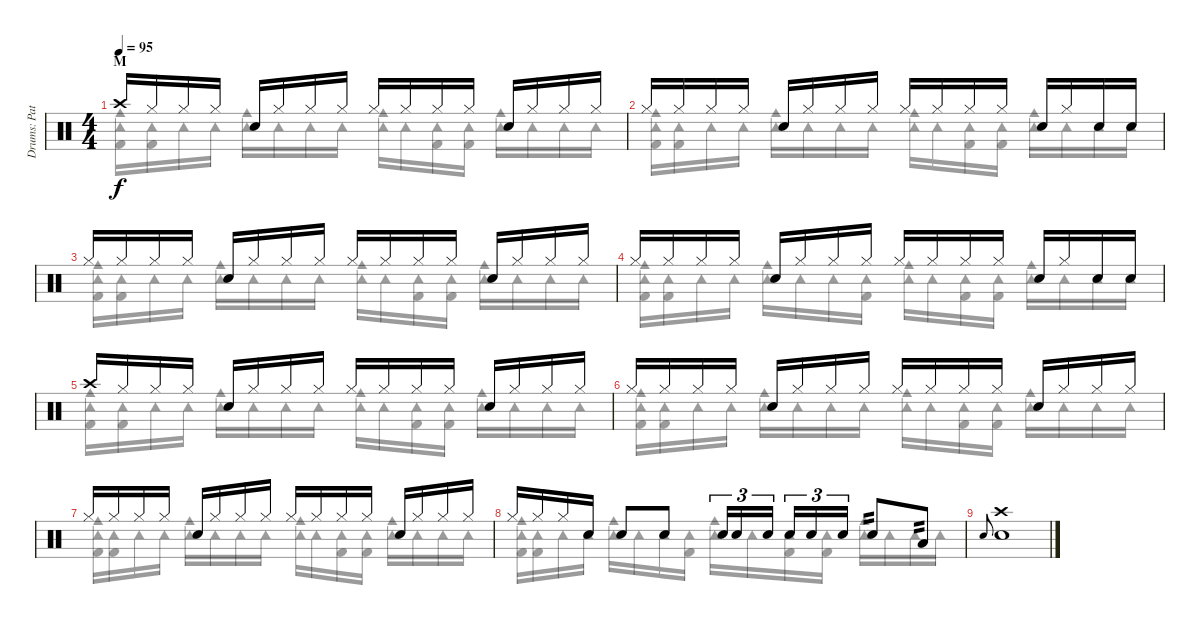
\track ("Drums: Pat" "Drums: Pat") {instrument percussion}
\staff {score}
\articulation defaults
\voice
\ts (4 4)
\section ("" "M")
\tempo 95
\clef neutral
\ks c "Crash high (hit)".16{dy f} "Hi-Hat (closed)".16 "Hi-Hat (closed)".16 "Hi-Hat (closed)".16 "Snare (hit) 2".16 "Hi-Hat (closed)".16 "Hi-Hat (closed)".16 "Hi-Hat (closed)".16 "Hi-Hat (closed)".16 "Hi-Hat (closed)".16 "Hi-Hat (closed)".16 "Hi-Hat (closed)".16 "Snare (hit) 2".16 "Hi-Hat (closed)".16 "Hi-Hat (closed)".16 "Hi-Hat (closed)".16
|
"Hi-Hat (closed)".16 "Hi-Hat (closed)".16 "Hi-Hat (closed)".16 "Hi-Hat (closed)".16 "Snare (hit) 2".16 "Hi-Hat (closed)".16 "Hi-Hat (closed)".16 "Hi-Hat (closed)".16 "Hi-Hat (closed)".16 "Hi-Hat (closed)".16 "Hi-Hat (closed)".16 "Hi-Hat (closed)".16 "Snare (hit) 2".16 "Hi-Hat (closed)".16 "Snare (hit) 2".16 "Snare (hit) 2".16 |
"Hi-Hat (closed)".16 "Hi-Hat (closed)".16 "Hi-Hat (closed)".16 "Hi-Hat (closed)".16 "Snare (hit) 2".16 "Hi-Hat (closed)".16 "Hi-Hat (closed)".16 "Hi-Hat (closed)".16 "Hi-Hat (closed)".16 "Hi-Hat (closed)".16 "Hi-Hat (closed)".16 "Hi-Hat (closed)".16 "Snare (hit) 2".16 "Hi-Hat (closed)".16 "Hi-Hat (closed)".16 "Hi-Hat (closed)".16 |
"Hi-Hat (closed)".16 "Hi-Hat (closed)".16 "Hi-Hat (closed)".16 "Hi-Hat (closed)".16 "Snare (hit) 2".16 "Hi-Hat (closed)".16 "Hi-Hat (closed)".16 "Hi-Hat (closed)".16 "Hi-Hat (closed)".16 "Hi-Hat (closed)".16 "Hi-Hat (closed)".16 "Hi-Hat (closed)".16 "Snare (hit) 2".16 "Hi-Hat (closed)".16 "Snare (hit) 2".16 "Snare (hit) 2".16 |
"Crash high (hit)".16 "Hi-Hat (closed)".16 "Hi-Hat (closed)".16 "Hi-Hat (closed)".16 "Snare (hit) 2".16 "Hi-Hat (closed)".16 "Hi-Hat (closed)".16 "Hi-Hat (closed)".16 "Hi-Hat (closed)".16 "Hi-Hat (closed)".16 "Hi-Hat (closed)".16 "Hi-Hat (closed)".16 "Snare (hit) 2".16 "Hi-Hat (closed)".16 "Hi-Hat (closed)".16 "Hi-Hat (closed)".16 |
"Hi-Hat (closed)".16 "Hi-Hat (closed)".16 "Hi-Hat (closed)".16 "Hi-Hat (closed)".16 "Snare (hit) 2".16 "Hi-Hat (closed)".16 "Hi-Hat (closed)".16 "Hi-Hat (closed)".16 "Hi-Hat (closed)".16 "Hi-Hat (closed)".16 "Hi-Hat (closed)".16 "Hi-Hat (closed)".16 "Snare (hit) 2".16 "Hi-Hat (closed)".16 "Hi-Hat (closed)".16 "Hi-Hat (closed)".16 |
"Hi-Hat (closed)".16 "Hi-Hat (closed)".16 "Hi-Hat (closed)".16 "Hi-Hat (closed)".16 "Snare (hit) 2".16 "Hi-Hat (closed)".16 "Hi-Hat (closed)".16 "Hi-Hat (closed)".16 "Hi-Hat (closed)".16 "Hi-Hat (closed)".16 "Hi-Hat (closed)".16 "Hi-Hat (closed)".16 "Snare (hit) 2".16 "Hi-Hat (closed)".16 "Hi-Hat (closed)".16 "Hi-Hat (closed)".16 |
"Hi-Hat (closed)".16 "Hi-Hat (closed)".16 "Hi-Hat (closed)".16 "Snare (hit) 2".16 "Snare (hit) 2".8 "Snare (hit) 2".8 "Snare (hit) 2".16{tu (3 2)} "Snare (hit) 2".16{tu (3 2)} "Snare (hit) 2".16{tu (3 2) beam splitsecondary} "Snare (hit) 2".16{tu (3 2)} "Snare (hit) 2".16{tu (3 2)} "Snare (hit) 2".16{tu (3 2)} "Snare (hit) 2".8{tp 2} "Low Tom (hit)".8{tp 2} |
"Electric Snare (hit)".8{gr onbeat} ("Crash high (hit)" "Snare (hit) 2").1 |
|
\voice
\clef neutral
\ottava regular
\simile none
\ks c
("Cowbell medium (hit)" "Kick (hit) 2" "Tambourine (hit)").16{dy f} ("Kick (hit) 2" "Tambourine (hit)").16 "Tambourine (hit)".16 "Tambourine (hit)".16 ("Cowbell medium (hit)" "Tambourine (hit)").16 "Tambourine (hit)".16 "Tambourine (hit)".16 "Tambourine (hit)".16 ("Cowbell medium (hit)" "Tambourine (hit)").16 "Tambourine (hit)".16 ("Kick (hit) 2" "Tambourine (hit)").16 ("Kick (hit) 2" "Tambourine (hit)").16 ("Cowbell medium (hit)" "Tambourine (hit)").16 "Tambourine (hit)".16 "Tambourine (hit)".16 "Tambourine (hit)".16 |
("Cowbell medium (hit)" "Kick (hit) 2" "Tambourine (hit)").16 ("Kick (hit) 2" "Tambourine (hit)").16 "Tambourine (hit)".16 "Tambourine (hit)".16 ("Cowbell medium (hit)" "Tambourine (hit)").16 "Tambourine (hit)".16 "Tambourine (hit)".16 "Tambourine (hit)".16 ("Cowbell medium (hit)" "Tambourine (hit)").16 "Tambourine (hit)".16 ("Kick (hit) 2" "Tambourine (hit)").16 ("Kick (hit) 2" "Tambourine (hit)").16 ("Cowbell medium (hit)" "Tambourine (hit)").16 "Tambourine (hit)".16 "Tambourine (hit)".16 "Tambourine (hit)".16 |
("Cowbell medium (hit)" "Kick (hit) 2" "Tambourine (hit)").16 ("Kick (hit) 2" "Tambourine (hit)").16 "Tambourine (hit)".16 "Tambourine (hit)".16 ("Cowbell medium (hit)" "Tambourine (hit)").16 "Tambourine (hit)".16 "Tambourine (hit)".16 "Tambourine (hit)".16 ("Cowbell medium (hit)" "Tambourine (hit)").16 "Tambourine (hit)".16 ("Kick (hit) 2" "Tambourine (hit)").16 ("Kick (hit) 2" "Tambourine (hit)").16 ("Cowbell medium (hit)" "Tambourine (hit)").16 "Tambourine (hit)".16 "Tambourine (hit)".16 "Tambourine (hit)".16 |
("Cowbell medium (hit)" "Kick (hit) 2" "Tambourine (hit)").16 ("Kick (hit) 2" "Tambourine (hit)").16 "Tambourine (hit)".16 "Tambourine (hit)".16 ("Cowbell medium (hit)" "Tambourine (hit)").16 "Tambourine (hit)".16 "Tambourine (hit)".16 ("Kick (hit) 2" "Tambourine (hit)").16 ("Cowbell medium (hit)" "Tambourine (hit)").16 "Tambourine (hit)".16 ("Kick (hit) 2" "Tambourine (hit)").16 ("Kick (hit) 2" "Tambourine (hit)").16 ("Cowbell medium (hit)" "Tambourine (hit)").16 "Tambourine (hit)".16 "Tambourine (hit)".16 "Tambourine (hit)".16 |
("Cowbell medium (hit)" "Kick (hit) 2" "Tambourine (hit)").16 ("Kick (hit) 2" "Tambourine (hit)").16 "Tambourine (hit)".16 "Tambourine (hit)".16 ("Cowbell medium (hit)" "Tambourine (hit)").16 "Tambourine (hit)".16 "Tambourine (hit)".16 "Tambourine (hit)".16 ("Cowbell medium (hit)" "Tambourine (hit)").16 "Tambourine (hit)".16 ("Kick (hit) 2" "Tambourine (hit)").16 ("Kick (hit) 2" "Tambourine (hit)").16 ("Cowbell medium (hit)" "Tambourine (hit)").16 "Tambourine (hit)".16 "Tambourine (hit)".16 "Tambourine (hit)".16 |
("Cowbell medium (hit)" "Kick (hit) 2" "Tambourine (hit)").16 ("Kick (hit) 2" "Tambourine (hit)").16 "Tambourine (hit)".16 "Tambourine (hit)".16 ("Cowbell medium (hit)" "Tambourine (hit)").16 "Tambourine (hit)".16 "Tambourine (hit)".16 "Tambourine (hit)".16 ("Cowbell medium (hit)" "Tambourine (hit)").16 "Tambourine (hit)".16 ("Kick (hit) 2" "Tambourine (hit)").16 ("Kick (hit) 2" "Tambourine (hit)").16 ("Cowbell medium (hit)" "Tambourine (hit)").16 "Tambourine (hit)".16 "Tambourine (hit)".16 "Tambourine (hit)".16 |
("Cowbell medium (hit)" "Kick (hit) 2" "Tambourine (hit)").16 ("Kick (hit) 2" "Tambourine (hit)").16 "Tambourine (hit)".16 "Tambourine (hit)".16 ("Cowbell medium (hit)" "Tambourine (hit)").16 "Tambourine (hit)".16 "Tambourine (hit)".16 "Tambourine (hit)".16 ("Cowbell medium (hit)" "Tambourine (hit)").16 "Tambourine (hit)".16 ("Kick (hit) 2" "Tambourine (hit)").16 ("Kick (hit) 2" "Tambourine (hit)").16 ("Cowbell medium (hit)" "Tambourine (hit)").16 "Tambourine (hit)".16 "Tambourine (hit)".16 "Tambourine (hit)".16 |
("Cowbell medium (hit)" "Kick (hit) 2" "Tambourine (hit)").16 ("Kick (hit) 2" "Tambourine (hit)").16 "Tambourine (hit)".16 "Tambourine (hit)".16 ("Cowbell medium (hit)" "Tambourine (hit)").16 "Tambourine (hit)".16 "Tambourine (hit)".16 ("Kick (hit) 2" "Tambourine (hit)").16 ("Cowbell medium (hit)" "Tambourine (hit)").16 "Tambourine (hit)".16 ("Kick (hit) 2" "Tambourine (hit)").16 ("Kick (hit) 2" "Tambourine (hit)").16 ("Cowbell medium (hit)" "Tambourine (hit)").16 "Tambourine (hit)".16 "Tambourine (hit)".16 "Tambourine (hit)".16 |
|
|
